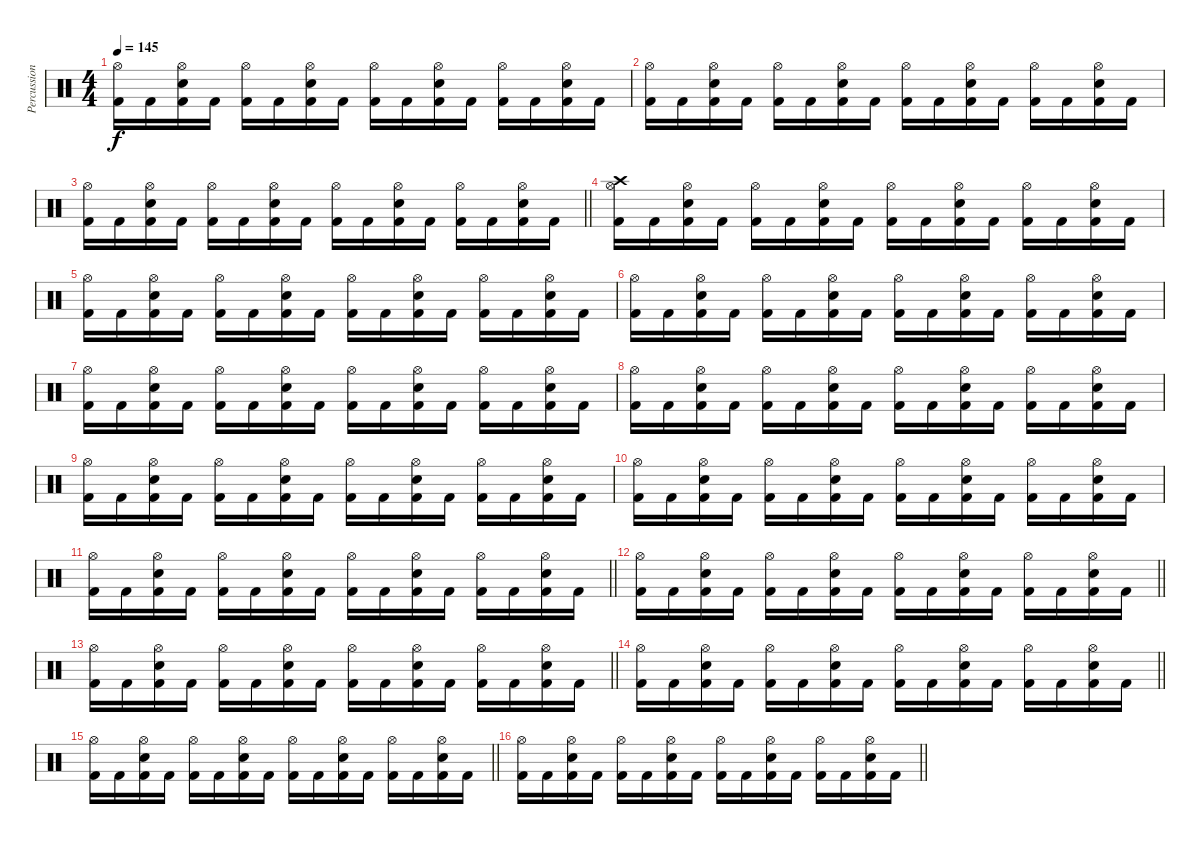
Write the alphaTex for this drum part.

\track ("Percussion" "Percussion") {instrument percussion}
\staff {score}
\articulation defaults
\ts (4 4)
\tempo 145
\clef neutral
\ks c
("Hi-Hat (open)" "Kick (hit) 2").16{dy f} "Kick (hit) 2".16 ("Hi-Hat (open)" "Electric Snare (hit)" "Kick (hit) 2").16 "Kick (hit) 2".16 ("Hi-Hat (open)" "Kick (hit) 2").16 "Kick (hit) 2".16 ("Hi-Hat (open)" "Electric Snare (hit)" "Kick (hit) 2").16 "Kick (hit) 2".16 ("Hi-Hat (open)" "Kick (hit) 2").16 "Kick (hit) 2".16 ("Hi-Hat (open)" "Electric Snare (hit)" "Kick (hit) 2").16 "Kick (hit) 2".16 ("Hi-Hat (open)" "Kick (hit) 2").16 "Kick (hit) 2".16 ("Hi-Hat (open)" "Electric Snare (hit)" "Kick (hit) 2").16 "Kick (hit) 2".16 |
("Hi-Hat (open)" "Kick (hit) 2").16 "Kick (hit) 2".16 ("Hi-Hat (open)" "Electric Snare (hit)" "Kick (hit) 2").16 "Kick (hit) 2".16 ("Hi-Hat (open)" "Kick (hit) 2").16 "Kick (hit) 2".16 ("Hi-Hat (open)" "Electric Snare (hit)" "Kick (hit) 2").16 "Kick (hit) 2".16 ("Hi-Hat (open)" "Kick (hit) 2").16 "Kick (hit) 2".16 ("Hi-Hat (open)" "Electric Snare (hit)" "Kick (hit) 2").16 "Kick (hit) 2".16 ("Hi-Hat (open)" "Kick (hit) 2").16 "Kick (hit) 2".16 ("Hi-Hat (open)" "Electric Snare (hit)" "Kick (hit) 2").16 "Kick (hit) 2".16 |
\barLineRight lightlight
("Hi-Hat (open)" "Kick (hit) 2").16 "Kick (hit) 2".16 ("Hi-Hat (open)" "Electric Snare (hit)" "Kick (hit) 2").16 "Kick (hit) 2".16 ("Hi-Hat (open)" "Kick (hit) 2").16 "Kick (hit) 2".16 ("Hi-Hat (open)" "Electric Snare (hit)" "Kick (hit) 2").16 "Kick (hit) 2".16 ("Hi-Hat (open)" "Kick (hit) 2").16 "Kick (hit) 2".16 ("Hi-Hat (open)" "Electric Snare (hit)" "Kick (hit) 2").16 "Kick (hit) 2".16 ("Hi-Hat (open)" "Kick (hit) 2").16 "Kick (hit) 2".16 ("Hi-Hat (open)" "Electric Snare (hit)" "Kick (hit) 2").16 "Kick (hit) 2".16 |
\section ("" "")
("Crash high (hit)" "Hi-Hat (open)" "Kick (hit) 2").16 "Kick (hit) 2".16 ("Hi-Hat (open)" "Electric Snare (hit)" "Kick (hit) 2").16 "Kick (hit) 2".16 ("Hi-Hat (open)" "Kick (hit) 2").16 "Kick (hit) 2".16 ("Hi-Hat (open)" "Electric Snare (hit)" "Kick (hit) 2").16 "Kick (hit) 2".16 ("Hi-Hat (open)" "Kick (hit) 2").16 "Kick (hit) 2".16 ("Hi-Hat (open)" "Electric Snare (hit)" "Kick (hit) 2").16 "Kick (hit) 2".16 ("Hi-Hat (open)" "Kick (hit) 2").16 "Kick (hit) 2".16 ("Hi-Hat (open)" "Electric Snare (hit)" "Kick (hit) 2").16 "Kick (hit) 2".16 |
("Hi-Hat (open)" "Kick (hit) 2").16 "Kick (hit) 2".16 ("Hi-Hat (open)" "Electric Snare (hit)" "Kick (hit) 2").16 "Kick (hit) 2".16 ("Hi-Hat (open)" "Kick (hit) 2").16 "Kick (hit) 2".16 ("Hi-Hat (open)" "Electric Snare (hit)" "Kick (hit) 2").16 "Kick (hit) 2".16 ("Hi-Hat (open)" "Kick (hit) 2").16 "Kick (hit) 2".16 ("Hi-Hat (open)" "Electric Snare (hit)" "Kick (hit) 2").16 "Kick (hit) 2".16 ("Hi-Hat (open)" "Kick (hit) 2").16 "Kick (hit) 2".16 ("Hi-Hat (open)" "Electric Snare (hit)" "Kick (hit) 2").16 "Kick (hit) 2".16 |
("Hi-Hat (open)" "Kick (hit) 2").16 "Kick (hit) 2".16 ("Hi-Hat (open)" "Electric Snare (hit)" "Kick (hit) 2").16 "Kick (hit) 2".16 ("Hi-Hat (open)" "Kick (hit) 2").16 "Kick (hit) 2".16 ("Hi-Hat (open)" "Electric Snare (hit)" "Kick (hit) 2").16 "Kick (hit) 2".16 ("Hi-Hat (open)" "Kick (hit) 2").16 "Kick (hit) 2".16 ("Hi-Hat (open)" "Electric Snare (hit)" "Kick (hit) 2").16 "Kick (hit) 2".16 ("Hi-Hat (open)" "Kick (hit) 2").16 "Kick (hit) 2".16 ("Hi-Hat (open)" "Electric Snare (hit)" "Kick (hit) 2").16 "Kick (hit) 2".16 |
("Hi-Hat (open)" "Kick (hit) 2").16 "Kick (hit) 2".16 ("Hi-Hat (open)" "Electric Snare (hit)" "Kick (hit) 2").16 "Kick (hit) 2".16 ("Hi-Hat (open)" "Kick (hit) 2").16 "Kick (hit) 2".16 ("Hi-Hat (open)" "Electric Snare (hit)" "Kick (hit) 2").16 "Kick (hit) 2".16 ("Hi-Hat (open)" "Kick (hit) 2").16 "Kick (hit) 2".16 ("Hi-Hat (open)" "Electric Snare (hit)" "Kick (hit) 2").16 "Kick (hit) 2".16 ("Hi-Hat (open)" "Kick (hit) 2").16 "Kick (hit) 2".16 ("Hi-Hat (open)" "Electric Snare (hit)" "Kick (hit) 2").16 "Kick (hit) 2".16 |
("Hi-Hat (open)" "Kick (hit) 2").16 "Kick (hit) 2".16 ("Hi-Hat (open)" "Electric Snare (hit)" "Kick (hit) 2").16 "Kick (hit) 2".16 ("Hi-Hat (open)" "Kick (hit) 2").16 "Kick (hit) 2".16 ("Hi-Hat (open)" "Electric Snare (hit)" "Kick (hit) 2").16 "Kick (hit) 2".16 ("Hi-Hat (open)" "Kick (hit) 2").16 "Kick (hit) 2".16 ("Hi-Hat (open)" "Electric Snare (hit)" "Kick (hit) 2").16 "Kick (hit) 2".16 ("Hi-Hat (open)" "Kick (hit) 2").16 "Kick (hit) 2".16 ("Hi-Hat (open)" "Electric Snare (hit)" "Kick (hit) 2").16 "Kick (hit) 2".16 |
("Hi-Hat (open)" "Kick (hit) 2").16 "Kick (hit) 2".16 ("Hi-Hat (open)" "Electric Snare (hit)" "Kick (hit) 2").16 "Kick (hit) 2".16 ("Hi-Hat (open)" "Kick (hit) 2").16 "Kick (hit) 2".16 ("Hi-Hat (open)" "Electric Snare (hit)" "Kick (hit) 2").16 "Kick (hit) 2".16 ("Hi-Hat (open)" "Kick (hit) 2").16 "Kick (hit) 2".16 ("Hi-Hat (open)" "Electric Snare (hit)" "Kick (hit) 2").16 "Kick (hit) 2".16 ("Hi-Hat (open)" "Kick (hit) 2").16 "Kick (hit) 2".16 ("Hi-Hat (open)" "Electric Snare (hit)" "Kick (hit) 2").16 "Kick (hit) 2".16 |
("Hi-Hat (open)" "Kick (hit) 2").16 "Kick (hit) 2".16 ("Hi-Hat (open)" "Electric Snare (hit)" "Kick (hit) 2").16 "Kick (hit) 2".16 ("Hi-Hat (open)" "Kick (hit) 2").16 "Kick (hit) 2".16 ("Hi-Hat (open)" "Electric Snare (hit)" "Kick (hit) 2").16 "Kick (hit) 2".16 ("Hi-Hat (open)" "Kick (hit) 2").16 "Kick (hit) 2".16 ("Hi-Hat (open)" "Electric Snare (hit)" "Kick (hit) 2").16 "Kick (hit) 2".16 ("Hi-Hat (open)" "Kick (hit) 2").16 "Kick (hit) 2".16 ("Hi-Hat (open)" "Electric Snare (hit)" "Kick (hit) 2").16 "Kick (hit) 2".16 |
\barLineRight lightlight
("Hi-Hat (open)" "Kick (hit) 2").16 "Kick (hit) 2".16 ("Hi-Hat (open)" "Electric Snare (hit)" "Kick (hit) 2").16 "Kick (hit) 2".16 ("Hi-Hat (open)" "Kick (hit) 2").16 "Kick (hit) 2".16 ("Hi-Hat (open)" "Electric Snare (hit)" "Kick (hit) 2").16 "Kick (hit) 2".16 ("Hi-Hat (open)" "Kick (hit) 2").16 "Kick (hit) 2".16 ("Hi-Hat (open)" "Electric Snare (hit)" "Kick (hit) 2").16 "Kick (hit) 2".16 ("Hi-Hat (open)" "Kick (hit) 2").16 "Kick (hit) 2".16 ("Hi-Hat (open)" "Electric Snare (hit)" "Kick (hit) 2").16 "Kick (hit) 2".16 |
\section ("" "")
\barLineRight lightlight
("Hi-Hat (open)" "Kick (hit) 2").16 "Kick (hit) 2".16 ("Hi-Hat (open)" "Electric Snare (hit)" "Kick (hit) 2").16 "Kick (hit) 2".16 ("Hi-Hat (open)" "Kick (hit) 2").16 "Kick (hit) 2".16 ("Hi-Hat (open)" "Electric Snare (hit)" "Kick (hit) 2").16 "Kick (hit) 2".16 ("Hi-Hat (open)" "Kick (hit) 2").16 "Kick (hit) 2".16 ("Hi-Hat (open)" "Electric Snare (hit)" "Kick (hit) 2").16 "Kick (hit) 2".16 ("Hi-Hat (open)" "Kick (hit) 2").16 "Kick (hit) 2".16 ("Hi-Hat (open)" "Electric Snare (hit)" "Kick (hit) 2").16 "Kick (hit) 2".16 |
\barLineRight lightlight
("Hi-Hat (open)" "Kick (hit) 2").16 "Kick (hit) 2".16 ("Hi-Hat (open)" "Electric Snare (hit)" "Kick (hit) 2").16 "Kick (hit) 2".16 ("Hi-Hat (open)" "Kick (hit) 2").16 "Kick (hit) 2".16 ("Hi-Hat (open)" "Electric Snare (hit)" "Kick (hit) 2").16 "Kick (hit) 2".16 ("Hi-Hat (open)" "Kick (hit) 2").16 "Kick (hit) 2".16 ("Hi-Hat (open)" "Electric Snare (hit)" "Kick (hit) 2").16 "Kick (hit) 2".16 ("Hi-Hat (open)" "Kick (hit) 2").16 "Kick (hit) 2".16 ("Hi-Hat (open)" "Electric Snare (hit)" "Kick (hit) 2").16 "Kick (hit) 2".16 |
\barLineRight lightlight
("Hi-Hat (open)" "Kick (hit) 2").16 "Kick (hit) 2".16 ("Hi-Hat (open)" "Electric Snare (hit)" "Kick (hit) 2").16 "Kick (hit) 2".16 ("Hi-Hat (open)" "Kick (hit) 2").16 "Kick (hit) 2".16 ("Hi-Hat (open)" "Electric Snare (hit)" "Kick (hit) 2").16 "Kick (hit) 2".16 ("Hi-Hat (open)" "Kick (hit) 2").16 "Kick (hit) 2".16 ("Hi-Hat (open)" "Electric Snare (hit)" "Kick (hit) 2").16 "Kick (hit) 2".16 ("Hi-Hat (open)" "Kick (hit) 2").16 "Kick (hit) 2".16 ("Hi-Hat (open)" "Electric Snare (hit)" "Kick (hit) 2").16 "Kick (hit) 2".16 |
\barLineRight lightlight
("Hi-Hat (open)" "Kick (hit) 2").16 "Kick (hit) 2".16 ("Hi-Hat (open)" "Electric Snare (hit)" "Kick (hit) 2").16 "Kick (hit) 2".16 ("Hi-Hat (open)" "Kick (hit) 2").16 "Kick (hit) 2".16 ("Hi-Hat (open)" "Electric Snare (hit)" "Kick (hit) 2").16 "Kick (hit) 2".16 ("Hi-Hat (open)" "Kick (hit) 2").16 "Kick (hit) 2".16 ("Hi-Hat (open)" "Electric Snare (hit)" "Kick (hit) 2").16 "Kick (hit) 2".16 ("Hi-Hat (open)" "Kick (hit) 2").16 "Kick (hit) 2".16 ("Hi-Hat (open)" "Electric Snare (hit)" "Kick (hit) 2").16 "Kick (hit) 2".16 |
\barLineRight lightlight
("Hi-Hat (open)" "Kick (hit) 2").16 "Kick (hit) 2".16 ("Hi-Hat (open)" "Electric Snare (hit)" "Kick (hit) 2").16 "Kick (hit) 2".16 ("Hi-Hat (open)" "Kick (hit) 2").16 "Kick (hit) 2".16 ("Hi-Hat (open)" "Electric Snare (hit)" "Kick (hit) 2").16 "Kick (hit) 2".16 ("Hi-Hat (open)" "Kick (hit) 2").16 "Kick (hit) 2".16 ("Hi-Hat (open)" "Electric Snare (hit)" "Kick (hit) 2").16 "Kick (hit) 2".16 ("Hi-Hat (open)" "Kick (hit) 2").16 "Kick (hit) 2".16 ("Hi-Hat (open)" "Electric Snare (hit)" "Kick (hit) 2").16 "Kick (hit) 2".16
